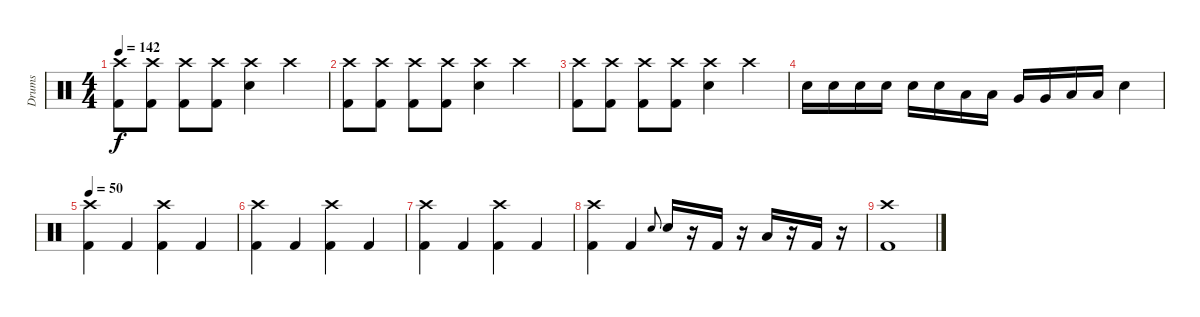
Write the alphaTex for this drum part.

\track ("Drums" "Drums") {instrument percussion}
\staff {score}
\articulation defaults
\ts (4 4)
\tempo 142
\clef neutral
\ks c
("Crash high (hit)" "Kick (hit) 2").8{dy f} ("Crash high (hit)" "Kick (hit) 2").8 ("Crash high (hit)" "Kick (hit) 2").8 ("Crash high (hit)" "Kick (hit) 2").8 ("Crash high (hit)" "Snare (hit) 2").4 "Crash high (hit)".4 |
("Crash high (hit)" "Kick (hit) 2").8 ("Crash high (hit)" "Kick (hit) 2").8 ("Crash high (hit)" "Kick (hit) 2").8 ("Crash high (hit)" "Kick (hit) 2").8 ("Crash high (hit)" "Snare (hit) 2").4 "Crash high (hit)".4 |
("Crash high (hit)" "Kick (hit) 2").8 ("Crash high (hit)" "Kick (hit) 2").8 ("Crash high (hit)" "Kick (hit) 2").8 ("Crash high (hit)" "Kick (hit) 2").8 ("Crash high (hit)" "Snare (hit) 2").4 "Crash high (hit)".4 |
"Snare (hit) 2".16 "Snare (hit) 2".16 "Snare (hit) 2".16 "Snare (hit) 2".16 "Snare (hit) 2".16 "Snare (hit) 2".16 "Low Tom (hit)".16 "Low Tom (hit)".16 "Very Low Tom (hit)".16 "Very Low Tom (hit)".16 "Low Floor Tom (hit)".16 "Low Floor Tom (hit)".16 "Snare (hit) 2".4 |
\tempo 50
("Crash high (hit)" "Kick (hit) 2").4 "Kick (hit) 2".4 ("Crash high (hit)" "Kick (hit) 2").4 "Kick (hit) 2".4 |
("Crash high (hit)" "Kick (hit) 2").4 "Kick (hit) 2".4 ("Crash high (hit)" "Kick (hit) 2").4 "Kick (hit) 2".4 |
("Crash high (hit)" "Kick (hit) 2").4 "Kick (hit) 2".4 ("Crash high (hit)" "Kick (hit) 2").4 "Kick (hit) 2".4 |
("Crash high (hit)" "Kick (hit) 2").4 "Kick (hit) 2".4 "Electric Snare (hit)".8{gr onbeat} "Electric Snare (hit)".16 r.16 "Kick (hit) 2".16 r.16 "Low Tom (hit)".16 r.16 "Kick (hit) 2".16 r.16 |
("Crash high (hit)" "Kick (hit) 2").1
